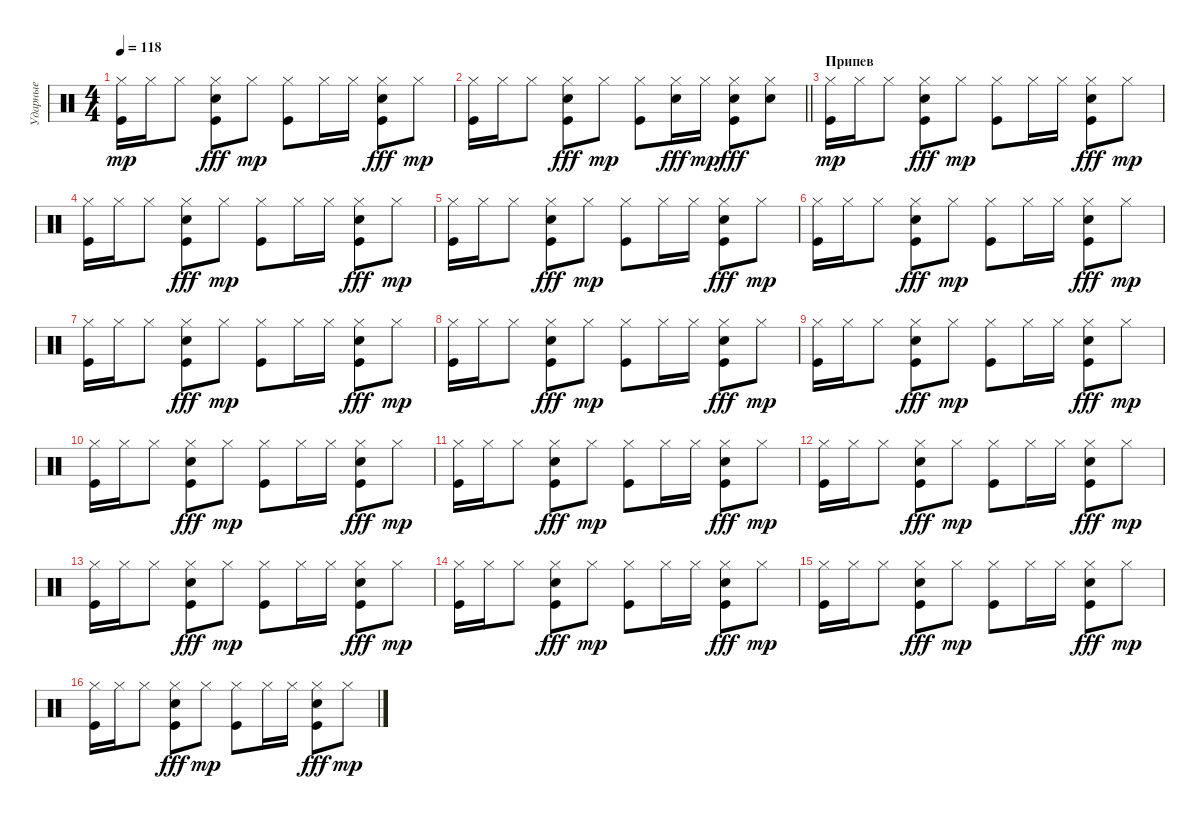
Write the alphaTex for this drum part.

\track ("Ударные" "Ударные") {instrument percussion}
\staff {score}
\articulation defaults
\ts (4 4)
\tempo 118
\clef neutral
\ks c
("Kick (hit)" "Hi-Hat (closed)").16{dy mp} "Hi-Hat (closed)".16 "Hi-Hat (closed)".8 ("Kick (hit)" "Hi-Hat (closed)" "Electric Snare (hit)").8{dy fff} "Hi-Hat (closed)".8{dy mp} ("Kick (hit)" "Hi-Hat (closed)").8 "Hi-Hat (closed)".16 "Hi-Hat (closed)".16 ("Hi-Hat (closed)" "Kick (hit)" "Electric Snare (hit)").8{dy fff} "Hi-Hat (closed)".8{dy mp} |
\barLineRight lightlight
("Kick (hit)" "Hi-Hat (closed)").16 "Hi-Hat (closed)".16 "Hi-Hat (closed)".8 ("Kick (hit)" "Hi-Hat (closed)" "Electric Snare (hit)").8{dy fff} "Hi-Hat (closed)".8{dy mp} ("Kick (hit)" "Hi-Hat (closed)").8 ("Hi-Hat (closed)" "Electric Snare (hit)").16{dy fff} "Hi-Hat (closed)".16{dy mp} ("Hi-Hat (closed)" "Kick (hit)" "Electric Snare (hit)").8{dy fff} ("Hi-Hat (closed)" "Electric Snare (hit)").8 |
\section ("" "Припев")
("Kick (hit)" "Hi-Hat (closed)").16{dy mp} "Hi-Hat (closed)".16 "Hi-Hat (closed)".8 ("Kick (hit)" "Hi-Hat (closed)" "Electric Snare (hit)").8{dy fff} "Hi-Hat (closed)".8{dy mp} ("Kick (hit)" "Hi-Hat (closed)").8 "Hi-Hat (closed)".16 "Hi-Hat (closed)".16 ("Hi-Hat (closed)" "Kick (hit)" "Electric Snare (hit)").8{dy fff} "Hi-Hat (closed)".8{dy mp} |
("Kick (hit)" "Hi-Hat (closed)").16 "Hi-Hat (closed)".16 "Hi-Hat (closed)".8 ("Kick (hit)" "Hi-Hat (closed)" "Electric Snare (hit)").8{dy fff} "Hi-Hat (closed)".8{dy mp} ("Kick (hit)" "Hi-Hat (closed)").8 "Hi-Hat (closed)".16 "Hi-Hat (closed)".16 ("Hi-Hat (closed)" "Kick (hit)" "Electric Snare (hit)").8{dy fff} "Hi-Hat (closed)".8{dy mp} |
("Kick (hit)" "Hi-Hat (closed)").16 "Hi-Hat (closed)".16 "Hi-Hat (closed)".8 ("Kick (hit)" "Hi-Hat (closed)" "Electric Snare (hit)").8{dy fff} "Hi-Hat (closed)".8{dy mp} ("Kick (hit)" "Hi-Hat (closed)").8 "Hi-Hat (closed)".16 "Hi-Hat (closed)".16 ("Hi-Hat (closed)" "Kick (hit)" "Electric Snare (hit)").8{dy fff} "Hi-Hat (closed)".8{dy mp} |
("Kick (hit)" "Hi-Hat (closed)").16 "Hi-Hat (closed)".16 "Hi-Hat (closed)".8 ("Kick (hit)" "Hi-Hat (closed)" "Electric Snare (hit)").8{dy fff} "Hi-Hat (closed)".8{dy mp} ("Kick (hit)" "Hi-Hat (closed)").8 "Hi-Hat (closed)".16 "Hi-Hat (closed)".16 ("Hi-Hat (closed)" "Kick (hit)" "Electric Snare (hit)").8{dy fff} "Hi-Hat (closed)".8{dy mp} |
("Kick (hit)" "Hi-Hat (closed)").16 "Hi-Hat (closed)".16 "Hi-Hat (closed)".8 ("Kick (hit)" "Hi-Hat (closed)" "Electric Snare (hit)").8{dy fff} "Hi-Hat (closed)".8{dy mp} ("Kick (hit)" "Hi-Hat (closed)").8 "Hi-Hat (closed)".16 "Hi-Hat (closed)".16 ("Hi-Hat (closed)" "Kick (hit)" "Electric Snare (hit)").8{dy fff} "Hi-Hat (closed)".8{dy mp} |
("Kick (hit)" "Hi-Hat (closed)").16 "Hi-Hat (closed)".16 "Hi-Hat (closed)".8 ("Kick (hit)" "Hi-Hat (closed)" "Electric Snare (hit)").8{dy fff} "Hi-Hat (closed)".8{dy mp} ("Kick (hit)" "Hi-Hat (closed)").8 "Hi-Hat (closed)".16 "Hi-Hat (closed)".16 ("Hi-Hat (closed)" "Kick (hit)" "Electric Snare (hit)").8{dy fff} "Hi-Hat (closed)".8{dy mp} |
("Kick (hit)" "Hi-Hat (closed)").16 "Hi-Hat (closed)".16 "Hi-Hat (closed)".8 ("Kick (hit)" "Hi-Hat (closed)" "Electric Snare (hit)").8{dy fff} "Hi-Hat (closed)".8{dy mp} ("Kick (hit)" "Hi-Hat (closed)").8 "Hi-Hat (closed)".16 "Hi-Hat (closed)".16 ("Hi-Hat (closed)" "Kick (hit)" "Electric Snare (hit)").8{dy fff} "Hi-Hat (closed)".8{dy mp} |
("Kick (hit)" "Hi-Hat (closed)").16 "Hi-Hat (closed)".16 "Hi-Hat (closed)".8 ("Kick (hit)" "Hi-Hat (closed)" "Electric Snare (hit)").8{dy fff} "Hi-Hat (closed)".8{dy mp} ("Kick (hit)" "Hi-Hat (closed)").8 "Hi-Hat (closed)".16 "Hi-Hat (closed)".16 ("Hi-Hat (closed)" "Kick (hit)" "Electric Snare (hit)").8{dy fff} "Hi-Hat (closed)".8{dy mp} |
("Kick (hit)" "Hi-Hat (closed)").16 "Hi-Hat (closed)".16 "Hi-Hat (closed)".8 ("Kick (hit)" "Hi-Hat (closed)" "Electric Snare (hit)").8{dy fff} "Hi-Hat (closed)".8{dy mp} ("Kick (hit)" "Hi-Hat (closed)").8 "Hi-Hat (closed)".16 "Hi-Hat (closed)".16 ("Hi-Hat (closed)" "Kick (hit)" "Electric Snare (hit)").8{dy fff} "Hi-Hat (closed)".8{dy mp} |
("Kick (hit)" "Hi-Hat (closed)").16 "Hi-Hat (closed)".16 "Hi-Hat (closed)".8 ("Kick (hit)" "Hi-Hat (closed)" "Electric Snare (hit)").8{dy fff} "Hi-Hat (closed)".8{dy mp} ("Kick (hit)" "Hi-Hat (closed)").8 "Hi-Hat (closed)".16 "Hi-Hat (closed)".16 ("Hi-Hat (closed)" "Kick (hit)" "Electric Snare (hit)").8{dy fff} "Hi-Hat (closed)".8{dy mp} |
("Kick (hit)" "Hi-Hat (closed)").16 "Hi-Hat (closed)".16 "Hi-Hat (closed)".8 ("Kick (hit)" "Hi-Hat (closed)" "Electric Snare (hit)").8{dy fff} "Hi-Hat (closed)".8{dy mp} ("Kick (hit)" "Hi-Hat (closed)").8 "Hi-Hat (closed)".16 "Hi-Hat (closed)".16 ("Hi-Hat (closed)" "Kick (hit)" "Electric Snare (hit)").8{dy fff} "Hi-Hat (closed)".8{dy mp} |
("Kick (hit)" "Hi-Hat (closed)").16 "Hi-Hat (closed)".16 "Hi-Hat (closed)".8 ("Kick (hit)" "Hi-Hat (closed)" "Electric Snare (hit)").8{dy fff} "Hi-Hat (closed)".8{dy mp} ("Kick (hit)" "Hi-Hat (closed)").8 "Hi-Hat (closed)".16 "Hi-Hat (closed)".16 ("Hi-Hat (closed)" "Kick (hit)" "Electric Snare (hit)").8{dy fff} "Hi-Hat (closed)".8{dy mp} |
("Kick (hit)" "Hi-Hat (closed)").16 "Hi-Hat (closed)".16 "Hi-Hat (closed)".8 ("Kick (hit)" "Hi-Hat (closed)" "Electric Snare (hit)").8{dy fff} "Hi-Hat (closed)".8{dy mp} ("Kick (hit)" "Hi-Hat (closed)").8 "Hi-Hat (closed)".16 "Hi-Hat (closed)".16 ("Hi-Hat (closed)" "Kick (hit)" "Electric Snare (hit)").8{dy fff} "Hi-Hat (closed)".8{dy mp} |
("Kick (hit)" "Hi-Hat (closed)").16 "Hi-Hat (closed)".16 "Hi-Hat (closed)".8 ("Kick (hit)" "Hi-Hat (closed)" "Electric Snare (hit)").8{dy fff} "Hi-Hat (closed)".8{dy mp} ("Kick (hit)" "Hi-Hat (closed)").8 "Hi-Hat (closed)".16 "Hi-Hat (closed)".16 ("Hi-Hat (closed)" "Kick (hit)" "Electric Snare (hit)").8{dy fff} "Hi-Hat (closed)".8{dy mp}
